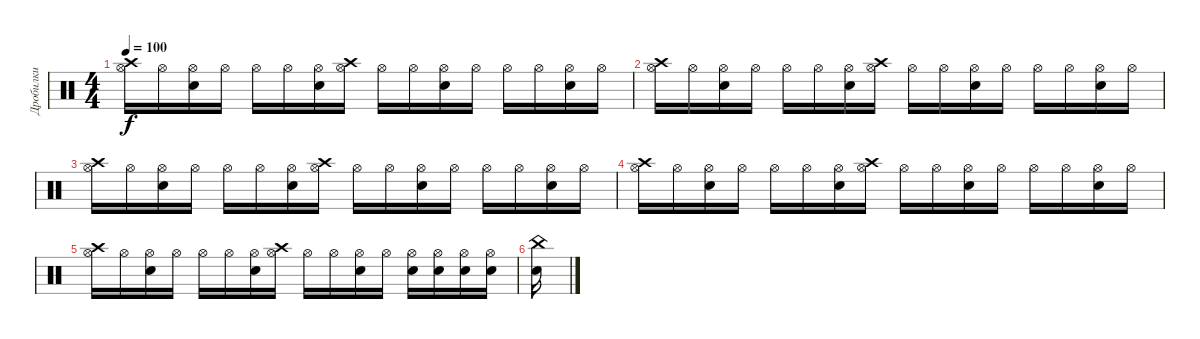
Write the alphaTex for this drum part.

\track ("Дробилки" "Дробилки") {instrument percussion}
\staff {score}
\articulation defaults
\ts (4 4)
\tempo 100
\clef neutral
\ks c
("Hi-Hat (open)" "Crash high (hit)").16{dy f} "Hi-Hat (open)".16 ("Hi-Hat (open)" "Snare (hit) 2").16 "Hi-Hat (open)".16 "Hi-Hat (open)".16 "Hi-Hat (open)".16 ("Hi-Hat (open)" "Snare (hit) 2").16 ("Hi-Hat (open)" "Crash high (hit)").16 "Hi-Hat (open)".16 "Hi-Hat (open)".16 ("Hi-Hat (open)" "Snare (hit) 2").16 "Hi-Hat (open)".16 "Hi-Hat (open)".16 "Hi-Hat (open)".16 ("Hi-Hat (open)" "Snare (hit) 2").16 "Hi-Hat (open)".16 |
("Hi-Hat (open)" "Crash high (hit)").16 "Hi-Hat (open)".16 ("Hi-Hat (open)" "Snare (hit) 2").16 "Hi-Hat (open)".16 "Hi-Hat (open)".16 "Hi-Hat (open)".16 ("Hi-Hat (open)" "Snare (hit) 2").16 ("Hi-Hat (open)" "Crash high (hit)").16 "Hi-Hat (open)".16 "Hi-Hat (open)".16 ("Hi-Hat (open)" "Snare (hit) 2").16 "Hi-Hat (open)".16 "Hi-Hat (open)".16 "Hi-Hat (open)".16 ("Hi-Hat (open)" "Snare (hit) 2").16 "Hi-Hat (open)".16 |
("Hi-Hat (open)" "Crash high (hit)").16 "Hi-Hat (open)".16 ("Hi-Hat (open)" "Snare (hit) 2").16 "Hi-Hat (open)".16 "Hi-Hat (open)".16 "Hi-Hat (open)".16 ("Hi-Hat (open)" "Snare (hit) 2").16 ("Hi-Hat (open)" "Crash high (hit)").16 "Hi-Hat (open)".16 "Hi-Hat (open)".16 ("Hi-Hat (open)" "Snare (hit) 2").16 "Hi-Hat (open)".16 "Hi-Hat (open)".16 "Hi-Hat (open)".16 ("Hi-Hat (open)" "Snare (hit) 2").16 "Hi-Hat (open)".16 |
("Hi-Hat (open)" "Crash high (hit)").16 "Hi-Hat (open)".16 ("Hi-Hat (open)" "Snare (hit) 2").16 "Hi-Hat (open)".16 "Hi-Hat (open)".16 "Hi-Hat (open)".16 ("Hi-Hat (open)" "Snare (hit) 2").16 ("Hi-Hat (open)" "Crash high (hit)").16 "Hi-Hat (open)".16 "Hi-Hat (open)".16 ("Hi-Hat (open)" "Snare (hit) 2").16 "Hi-Hat (open)".16 "Hi-Hat (open)".16 "Hi-Hat (open)".16 ("Hi-Hat (open)" "Snare (hit) 2").16 "Hi-Hat (open)".16 |
("Hi-Hat (open)" "Crash high (hit)").16 "Hi-Hat (open)".16 ("Hi-Hat (open)" "Snare (hit) 2").16 "Hi-Hat (open)".16 "Hi-Hat (open)".16 "Hi-Hat (open)".16 ("Hi-Hat (open)" "Snare (hit) 2").16 ("Hi-Hat (open)" "Crash high (hit)").16 "Hi-Hat (open)".16 "Hi-Hat (open)".16 ("Hi-Hat (open)" "Snare (hit) 2").16 "Hi-Hat (open)".16 ("Hi-Hat (open)" "Snare (hit) 2").16 ("Hi-Hat (open)" "Snare (hit) 2").16 ("Hi-Hat (open)" "Snare (hit) 2").16 ("Hi-Hat (open)" "Snare (hit) 2").16 |
("China (hit)" "Electric Snare (hit)").16
